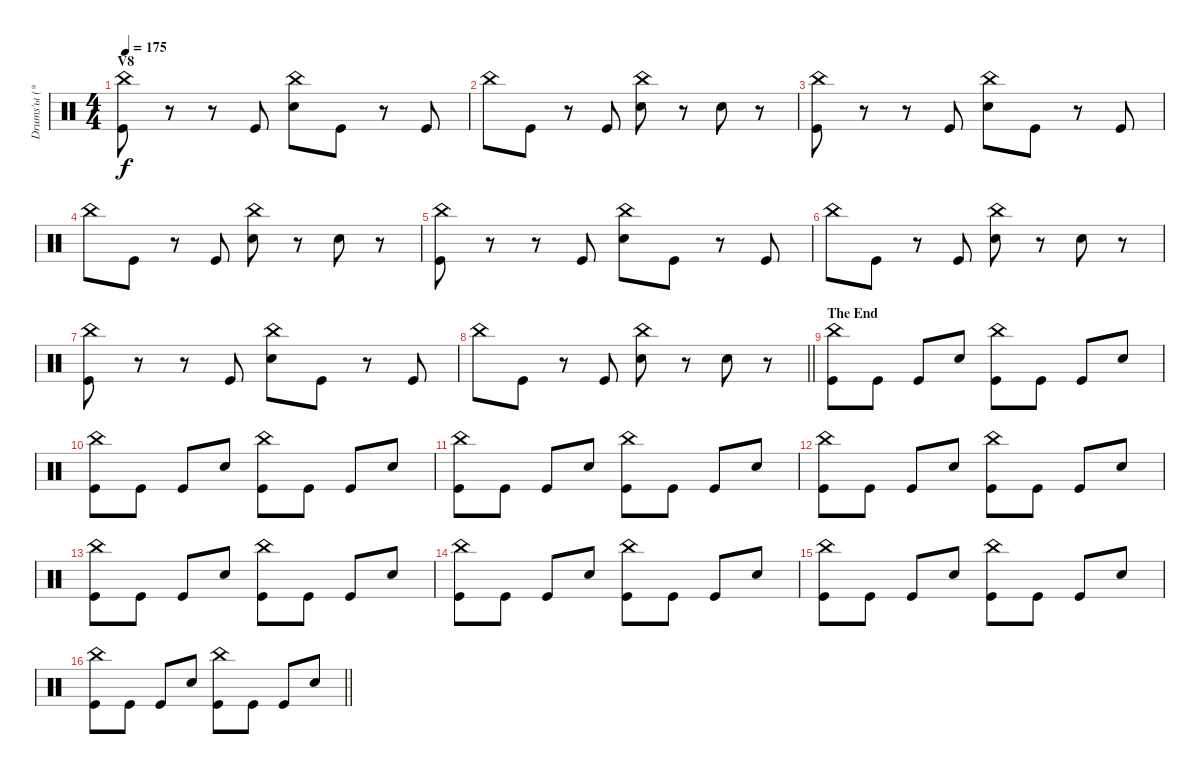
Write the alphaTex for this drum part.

\track ("Drums'ы (***)" "Drums'ы (*") {instrument percussion}
\staff {score}
\articulation defaults
\ts (4 4)
\section ("" "V8")
\tempo 175
\clef neutral
\ks c
("China (hit)" "Kick (hit)").8{dy f} r.8 r.8 "Kick (hit)".8 ("China (hit)" "Electric Snare (hit)").8 "Kick (hit)".8 r.8 "Kick (hit)".8 |
"China (hit)".8 "Kick (hit)".8 r.8 "Kick (hit)".8 ("China (hit)" "Electric Snare (hit)").8 r.8 "Electric Snare (hit)".8 r.8 |
("China (hit)" "Kick (hit)").8 r.8 r.8 "Kick (hit)".8 ("China (hit)" "Electric Snare (hit)").8 "Kick (hit)".8 r.8 "Kick (hit)".8 |
"China (hit)".8 "Kick (hit)".8 r.8 "Kick (hit)".8 ("China (hit)" "Electric Snare (hit)").8 r.8 "Electric Snare (hit)".8 r.8 |
("China (hit)" "Kick (hit)").8 r.8 r.8 "Kick (hit)".8 ("China (hit)" "Electric Snare (hit)").8 "Kick (hit)".8 r.8 "Kick (hit)".8 |
"China (hit)".8 "Kick (hit)".8 r.8 "Kick (hit)".8 ("China (hit)" "Electric Snare (hit)").8 r.8 "Electric Snare (hit)".8 r.8 |
("China (hit)" "Kick (hit)").8 r.8 r.8 "Kick (hit)".8 ("China (hit)" "Electric Snare (hit)").8 "Kick (hit)".8 r.8 "Kick (hit)".8 |
\barLineRight lightlight "China (hit)".8 "Kick (hit)".8
r.8 "Kick (hit)".8 ("China (hit)" "Electric Snare (hit)").8 r.8 "Electric Snare (hit)".8 r.8 |
\section ("" "The End")
("China (hit)" "Kick (hit)").8 "Kick (hit)".8 "Kick (hit)".8 "Electric Snare (hit)".8 ("China (hit)" "Kick (hit)").8 "Kick (hit)".8 "Kick (hit)".8 "Electric Snare (hit)".8 |
("China (hit)" "Kick (hit)").8 "Kick (hit)".8 "Kick (hit)".8 "Electric Snare (hit)".8 ("China (hit)" "Kick (hit)").8 "Kick (hit)".8 "Kick (hit)".8 "Electric Snare (hit)".8 |
("China (hit)" "Kick (hit)").8 "Kick (hit)".8 "Kick (hit)".8 "Electric Snare (hit)".8 ("China (hit)" "Kick (hit)").8 "Kick (hit)".8 "Kick (hit)".8 "Electric Snare (hit)".8 |
("China (hit)" "Kick (hit)").8 "Kick (hit)".8 "Kick (hit)".8 "Electric Snare (hit)".8 ("China (hit)" "Kick (hit)").8 "Kick (hit)".8 "Kick (hit)".8 "Electric Snare (hit)".8 |
("China (hit)" "Kick (hit)").8 "Kick (hit)".8 "Kick (hit)".8 "Electric Snare (hit)".8 ("China (hit)" "Kick (hit)").8 "Kick (hit)".8 "Kick (hit)".8 "Electric Snare (hit)".8 |
("China (hit)" "Kick (hit)").8 "Kick (hit)".8 "Kick (hit)".8 "Electric Snare (hit)".8 ("China (hit)" "Kick (hit)").8 "Kick (hit)".8 "Kick (hit)".8 "Electric Snare (hit)".8 |
("China (hit)" "Kick (hit)").8 "Kick (hit)".8 "Kick (hit)".8 "Electric Snare (hit)".8 ("China (hit)" "Kick (hit)").8 "Kick (hit)".8 "Kick (hit)".8 "Electric Snare (hit)".8 |
\barLineRight lightlight
("China (hit)" "Kick (hit)").8 "Kick (hit)".8 "Kick (hit)".8 "Electric Snare (hit)".8 ("China (hit)" "Kick (hit)").8 "Kick (hit)".8 "Kick (hit)".8 "Electric Snare (hit)".8
